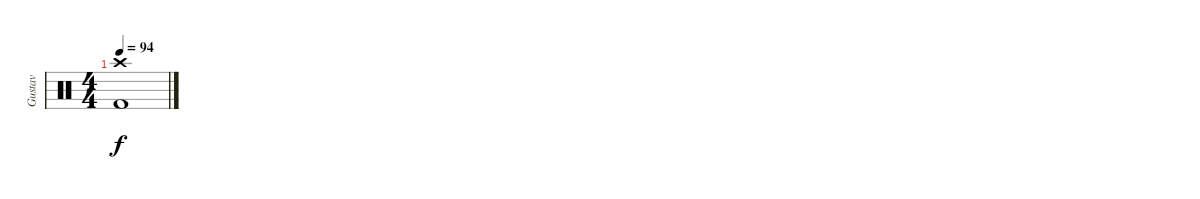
\track ("Gustav" "Gustav") {instrument percussion}
\staff {score}
\articulation defaults
\ts (4 4)
\tempo 94
\clef neutral
\ks c
("Crash high (hit)" "Kick (hit) 2").1{dy f}
